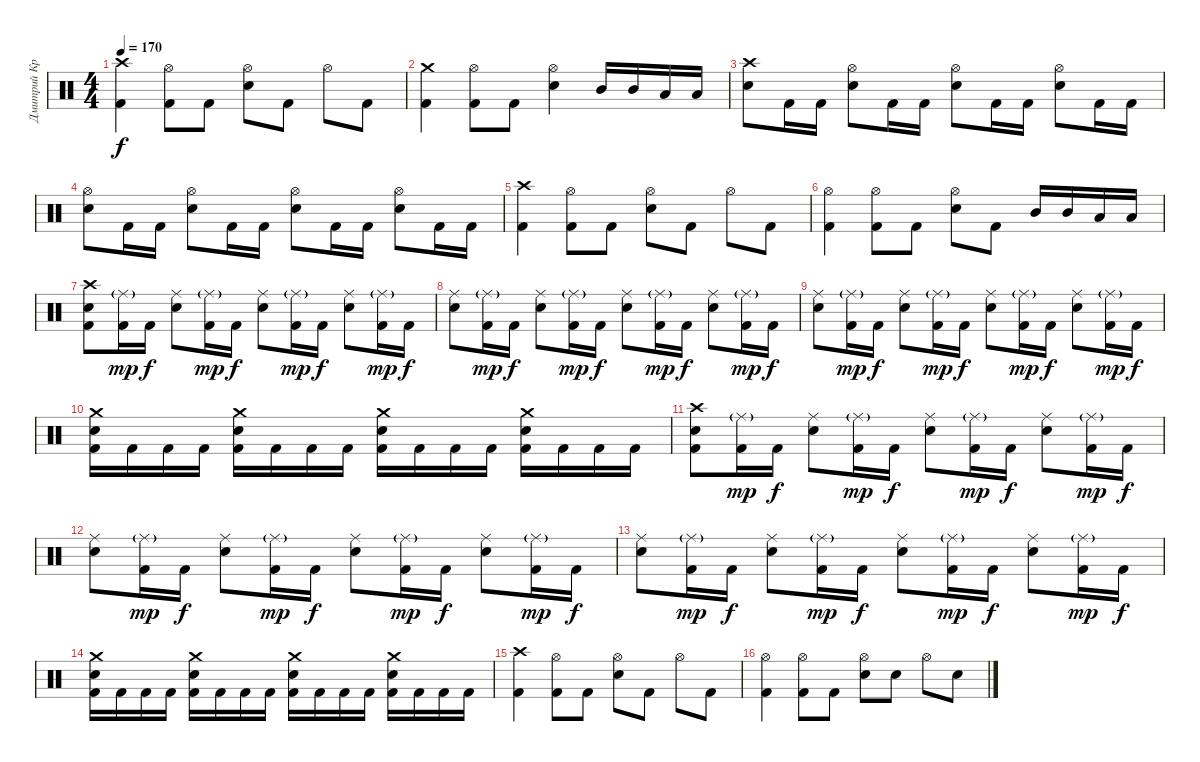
\track ("Дмитрий Кривенков" "Дмитрий Кр") {instrument percussion}
\staff {score}
\articulation defaults
\ts (4 4)
\tempo 170
\clef neutral
\ks c
("Crash high (hit)" "Kick (hit) 2").4{dy f} ("Hi-Hat (open)" "Kick (hit) 2").8 "Kick (hit) 2".8 ("Hi-Hat (open)" "Electric Snare (hit)").8 "Kick (hit) 2".8 "Hi-Hat (open)".8 "Kick (hit) 2".8 |
("Crash medium (hit)" "Kick (hit) 2").4 ("Hi-Hat (open)" "Kick (hit) 2").8 "Kick (hit) 2".8 ("Hi-Hat (open)" "Electric Snare (hit)").4 "Mid Tom (hit)".16 "Mid Tom (hit)".16 "Low Tom (hit)".16 "Low Tom (hit)".16 |
("Crash high (hit)" "Electric Snare (hit)").8 "Kick (hit) 2".16 "Kick (hit) 2".16 ("Hi-Hat (open)" "Electric Snare (hit)").8 "Kick (hit) 2".16 "Kick (hit) 2".16 ("Hi-Hat (open)" "Electric Snare (hit)").8 "Kick (hit) 2".16 "Kick (hit) 2".16 ("Hi-Hat (open)" "Electric Snare (hit)").8 "Kick (hit) 2".16 "Kick (hit) 2".16 |
("Hi-Hat (open)" "Electric Snare (hit)").8 "Kick (hit) 2".16 "Kick (hit) 2".16 ("Hi-Hat (open)" "Electric Snare (hit)").8 "Kick (hit) 2".16 "Kick (hit) 2".16 ("Hi-Hat (open)" "Electric Snare (hit)").8 "Kick (hit) 2".16 "Kick (hit) 2".16 ("Hi-Hat (open)" "Electric Snare (hit)").8 "Kick (hit) 2".16 "Kick (hit) 2".16 |
("Crash high (hit)" "Kick (hit) 2").4 ("Hi-Hat (open)" "Kick (hit) 2").8 "Kick (hit) 2".8 ("Hi-Hat (open)" "Electric Snare (hit)").8 "Kick (hit) 2".8 "Hi-Hat (open)".8 "Kick (hit) 2".8 |
("Hi-Hat (open)" "Kick (hit) 2").4 ("Hi-Hat (open)" "Kick (hit) 2").8 "Kick (hit) 2".8 ("Hi-Hat (open)" "Electric Snare (hit)").8 "Kick (hit) 2".8 "Mid Tom (hit)".16 "Mid Tom (hit)".16 "Low Tom (hit)".16 "Low Tom (hit)".16 |
("Crash high (hit)" "Electric Snare (hit)" "Kick (hit) 2").8 ("Ride (middle)"{g} "Kick (hit) 2").16{dy mp} "Kick (hit) 2".16{dy f} ("Ride (middle)" "Electric Snare (hit)").8 ("Ride (middle)"{g} "Kick (hit) 2").16{dy mp} "Kick (hit) 2".16{dy f} ("Ride (middle)" "Electric Snare (hit)").8 ("Ride (middle)"{g} "Kick (hit) 2").16{dy mp} "Kick (hit) 2".16{dy f} ("Ride (middle)" "Electric Snare (hit)").8 ("Ride (middle)"{g} "Kick (hit) 2").16{dy mp} "Kick (hit) 2".16{dy f} |
("Ride (middle)" "Electric Snare (hit)").8 ("Ride (middle)"{g} "Kick (hit) 2").16{dy mp} "Kick (hit) 2".16{dy f} ("Ride (middle)" "Electric Snare (hit)").8 ("Ride (middle)"{g} "Kick (hit) 2").16{dy mp} "Kick (hit) 2".16{dy f} ("Ride (middle)" "Electric Snare (hit)").8 ("Ride (middle)"{g} "Kick (hit) 2").16{dy mp} "Kick (hit) 2".16{dy f} ("Ride (middle)" "Electric Snare (hit)").8 ("Ride (middle)"{g} "Kick (hit) 2").16{dy mp} "Kick (hit) 2".16{dy f} |
("Ride (middle)" "Electric Snare (hit)").8 ("Ride (middle)"{g} "Kick (hit) 2").16{dy mp} "Kick (hit) 2".16{dy f} ("Ride (middle)" "Electric Snare (hit)").8 ("Ride (middle)"{g} "Kick (hit) 2").16{dy mp} "Kick (hit) 2".16{dy f} ("Ride (middle)" "Electric Snare (hit)").8 ("Ride (middle)"{g} "Kick (hit) 2").16{dy mp} "Kick (hit) 2".16{dy f} ("Ride (middle)" "Electric Snare (hit)").8 ("Ride (middle)"{g} "Kick (hit) 2").16{dy mp} "Kick (hit) 2".16{dy f} |
("Crash medium (hit)" "Electric Snare (hit)" "Kick (hit) 2").16 "Kick (hit) 2".16 "Kick (hit) 2".16 "Kick (hit) 2".16 ("Crash medium (hit)" "Electric Snare (hit)" "Kick (hit) 2").16 "Kick (hit) 2".16 "Kick (hit) 2".16 "Kick (hit) 2".16 ("Crash medium (hit)" "Electric Snare (hit)" "Kick (hit) 2").16 "Kick (hit) 2".16 "Kick (hit) 2".16 "Kick (hit) 2".16 ("Crash medium (hit)" "Electric Snare (hit)" "Kick (hit) 2").16 "Kick (hit) 2".16 "Kick (hit) 2".16 "Kick (hit) 2".16 |
("Crash high (hit)" "Electric Snare (hit)" "Kick (hit) 2").8 ("Ride (middle)"{g} "Kick (hit) 2").16{dy mp} "Kick (hit) 2".16{dy f} ("Ride (middle)" "Electric Snare (hit)").8 ("Ride (middle)"{g} "Kick (hit) 2").16{dy mp} "Kick (hit) 2".16{dy f} ("Ride (middle)" "Electric Snare (hit)").8 ("Ride (middle)"{g} "Kick (hit) 2").16{dy mp} "Kick (hit) 2".16{dy f} ("Ride (middle)" "Electric Snare (hit)").8 ("Ride (middle)"{g} "Kick (hit) 2").16{dy mp} "Kick (hit) 2".16{dy f} |
("Ride (middle)" "Electric Snare (hit)").8 ("Ride (middle)"{g} "Kick (hit) 2").16{dy mp} "Kick (hit) 2".16{dy f} ("Ride (middle)" "Electric Snare (hit)").8 ("Ride (middle)"{g} "Kick (hit) 2").16{dy mp} "Kick (hit) 2".16{dy f} ("Ride (middle)" "Electric Snare (hit)").8 ("Ride (middle)"{g} "Kick (hit) 2").16{dy mp} "Kick (hit) 2".16{dy f} ("Ride (middle)" "Electric Snare (hit)").8 ("Ride (middle)"{g} "Kick (hit) 2").16{dy mp} "Kick (hit) 2".16{dy f} |
("Ride (middle)" "Electric Snare (hit)").8 ("Ride (middle)"{g} "Kick (hit) 2").16{dy mp} "Kick (hit) 2".16{dy f} ("Ride (middle)" "Electric Snare (hit)").8 ("Ride (middle)"{g} "Kick (hit) 2").16{dy mp} "Kick (hit) 2".16{dy f} ("Ride (middle)" "Electric Snare (hit)").8 ("Ride (middle)"{g} "Kick (hit) 2").16{dy mp} "Kick (hit) 2".16{dy f} ("Ride (middle)" "Electric Snare (hit)").8 ("Ride (middle)"{g} "Kick (hit) 2").16{dy mp} "Kick (hit) 2".16{dy f} |
("Crash medium (hit)" "Electric Snare (hit)" "Kick (hit) 2").16 "Kick (hit) 2".16 "Kick (hit) 2".16 "Kick (hit) 2".16 ("Crash medium (hit)" "Electric Snare (hit)" "Kick (hit) 2").16 "Kick (hit) 2".16 "Kick (hit) 2".16 "Kick (hit) 2".16 ("Crash medium (hit)" "Electric Snare (hit)" "Kick (hit) 2").16 "Kick (hit) 2".16 "Kick (hit) 2".16 "Kick (hit) 2".16 ("Crash medium (hit)" "Electric Snare (hit)" "Kick (hit) 2").16 "Kick (hit) 2".16 "Kick (hit) 2".16 "Kick (hit) 2".16 |
("Crash high (hit)" "Kick (hit) 2").4 ("Hi-Hat (open)" "Kick (hit) 2").8 "Kick (hit) 2".8 ("Hi-Hat (open)" "Electric Snare (hit)").8 "Kick (hit) 2".8 "Hi-Hat (open)".8 "Kick (hit) 2".8 |
("Hi-Hat (open)" "Kick (hit) 2").4 ("Hi-Hat (open)" "Kick (hit) 2").8 "Kick (hit) 2".8 ("Hi-Hat (open)" "Electric Snare (hit)").8 "Electric Snare (hit)".8 "Hi-Hat (open)".8 "Electric Snare (hit)".8
